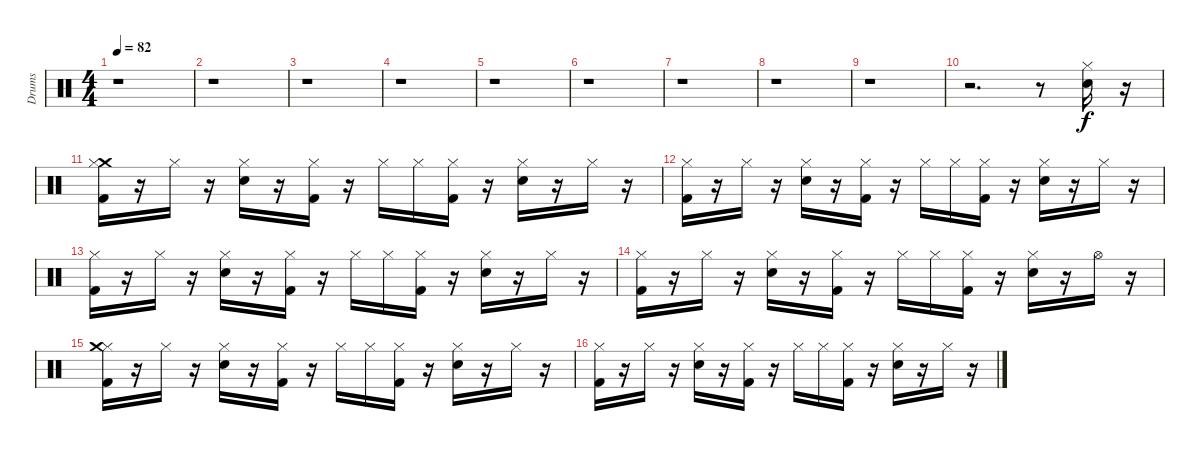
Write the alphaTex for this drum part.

\track ("Drums" "Drums") {instrument percussion}
\staff {score}
\articulation defaults
\ts (4 4)
\tempo 82
\clef neutral
\ks c
r.1{dy f} |
r.1 |
r.1 |
r.1 |
r.1 |
r.1 |
r.1 |
r.1 |
r.1 |
r.2{d} r.8 ("Electric Snare (hit)" "Hi-Hat (closed)").16 r.16 |
("Crash medium (hit)" "Hi-Hat (closed)" "Kick (hit) 2").16 r.16 "Hi-Hat (closed)".16 r.16 ("Hi-Hat (closed)" "Electric Snare (hit)").16 r.16 ("Hi-Hat (closed)" "Kick (hit) 2").16 r.16 "Hi-Hat (closed)".16 "Hi-Hat (closed)".16 ("Kick (hit) 2" "Hi-Hat (closed)").16 r.16 ("Hi-Hat (closed)" "Electric Snare (hit)").16 r.16 "Hi-Hat (closed)".16 r.16 |
("Kick (hit) 2" "Hi-Hat (closed)").16 r.16 "Hi-Hat (closed)".16 r.16 ("Hi-Hat (closed)" "Electric Snare (hit)").16 r.16 ("Kick (hit) 2" "Hi-Hat (closed)").16 r.16 "Hi-Hat (closed)".16 "Hi-Hat (closed)".16 ("Hi-Hat (closed)" "Kick (hit) 2").16 r.16 ("Electric Snare (hit)" "Hi-Hat (closed)").16 r.16 "Hi-Hat (closed)".16 r.16 |
("Hi-Hat (closed)" "Kick (hit) 2").16 r.16 "Hi-Hat (closed)".16 r.16 ("Electric Snare (hit)" "Hi-Hat (closed)").16 r.16 ("Hi-Hat (closed)" "Kick (hit) 2").16 r.16 "Hi-Hat (closed)".16 "Hi-Hat (closed)".16 ("Kick (hit) 2" "Hi-Hat (closed)").16 r.16 ("Electric Snare (hit)" "Hi-Hat (closed)").16 r.16 "Hi-Hat (closed)".16 r.16 |
("Kick (hit) 2" "Hi-Hat (closed)").16 r.16 "Hi-Hat (closed)".16 r.16 ("Hi-Hat (closed)" "Electric Snare (hit)").16 r.16 ("Hi-Hat (closed)" "Kick (hit) 2").16 r.16 "Hi-Hat (closed)".16 "Hi-Hat (closed)".16 ("Hi-Hat (closed)" "Kick (hit) 2").16 r.16 ("Hi-Hat (closed)" "Electric Snare (hit)").16 r.16 "Hi-Hat (open)".16 r.16 |
("Kick (hit) 2" "Hi-Hat (closed)" "Crash medium (hit)").16 r.16 "Hi-Hat (closed)".16 r.16 ("Hi-Hat (closed)" "Electric Snare (hit)").16 r.16 ("Kick (hit) 2" "Hi-Hat (closed)").16 r.16 "Hi-Hat (closed)".16 "Hi-Hat (closed)".16 ("Hi-Hat (closed)" "Kick (hit) 2").16 r.16 ("Electric Snare (hit)" "Hi-Hat (closed)").16 r.16 "Hi-Hat (closed)".16 r.16 |
("Hi-Hat (closed)" "Kick (hit) 2").16 r.16 "Hi-Hat (closed)".16 r.16 ("Electric Snare (hit)" "Hi-Hat (closed)").16 r.16 ("Hi-Hat (closed)" "Kick (hit) 2").16 r.16 "Hi-Hat (closed)".16 "Hi-Hat (closed)".16 ("Kick (hit) 2" "Hi-Hat (closed)").16 r.16 ("Hi-Hat (closed)" "Electric Snare (hit)").16 r.16 "Hi-Hat (closed)".16 r.16
